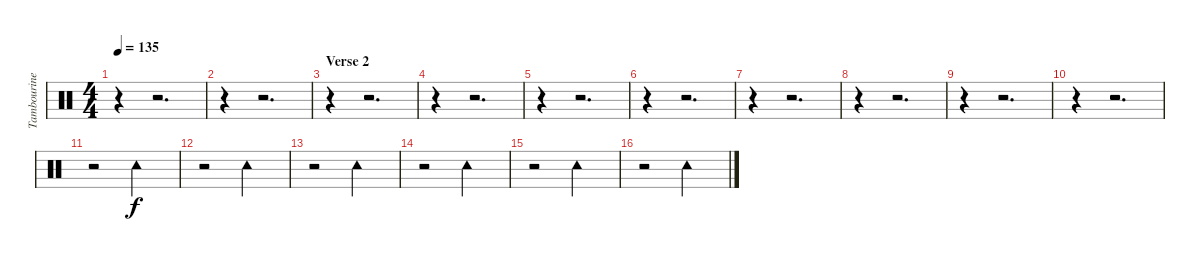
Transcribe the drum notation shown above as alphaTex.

\track ("Tambourine" "Tambourine") {instrument percussion}
\staff {score}
\articulation defaults
\ts (4 4)
\tempo 135
\clef neutral
\ks c
r.4{dy f} r.2{d} |
r.4 r.2{d} |
\section ("" "Verse 2")
r.4 r.2{d} |
r.4 r.2{d} |
r.4 r.2{d} |
r.4 r.2{d} |
r.4 r.2{d} |
r.4 r.2{d} |
r.4 r.2{d} |
r.4 r.2{d} |
r.2 "Tambourine (hit)".2 |
r.2 "Tambourine (hit)".2 |
r.2 "Tambourine (hit)".2 |
r.2 "Tambourine (hit)".2 |
r.2 "Tambourine (hit)".2 |
r.2 "Tambourine (hit)".2
